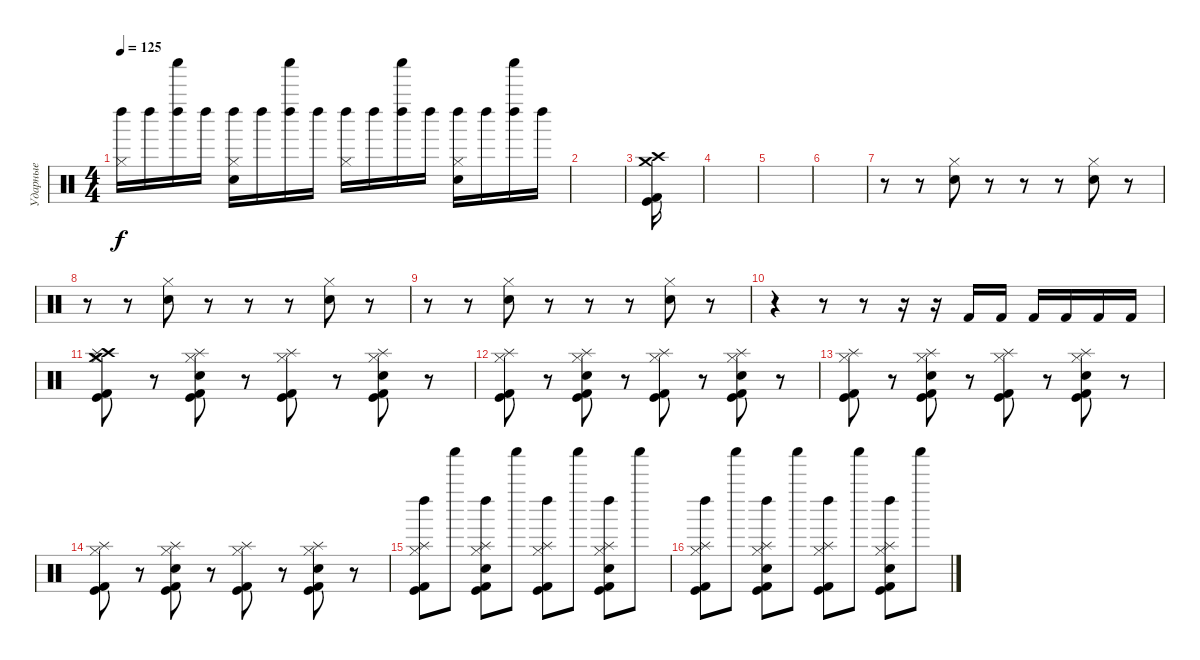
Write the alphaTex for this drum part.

\track ("Ударные" "Ударные") {instrument percussion}
\staff {score}
\articulation defaults
\ts (4 4)
\tempo 125
\clef neutral
\ks c
("Hi-Hat (closed)" "Left Maraca (hit)").16{dy f} "Left Maraca (hit)".16 ("Shaker (hit)" "Left Maraca (hit)").16 "Left Maraca (hit)".16 ("Hand Clap (hit)" "Hi-Hat (closed)" "Left Maraca (hit)").16 "Left Maraca (hit)".16 ("Shaker (hit)" "Left Maraca (hit)").16 "Left Maraca (hit)".16 ("Hi-Hat (closed)" "Left Maraca (hit)").16 "Left Maraca (hit)".16 ("Shaker (hit)" "Left Maraca (hit)").16 "Left Maraca (hit)".16 ("Hand Clap (hit)" "Hi-Hat (closed)" "Left Maraca (hit)").16 "Left Maraca (hit)".16 ("Shaker (hit)" "Left Maraca (hit)").16 "Left Maraca (hit)".16 |
|
("Crash high (hit)" "Crash medium (hit)" "Kick (hit) 2" "Kick (hit)").16 |
|
|
|
r.8 r.8 ("Hand Clap (hit)" "Hi-Hat (closed)").8 r.8 r.8 r.8 ("Hand Clap (hit)" "Hi-Hat (closed)").8 r.8 |
r.8 r.8 ("Hand Clap (hit)" "Hi-Hat (closed)").8 r.8 r.8 r.8 ("Hand Clap (hit)" "Hi-Hat (closed)").8 r.8 |
r.8 r.8 ("Hand Clap (hit)" "Hi-Hat (closed)").8 r.8 r.8 r.8 ("Hand Clap (hit)" "Hi-Hat (closed)").8 r.8 |
r.4 r.8 r.8 r.16 r.16 "Kick (hit) 2".16 "Kick (hit) 2".16 "Kick (hit) 2".16 "Kick (hit) 2".16 "Kick (hit) 2".16 "Kick (hit) 2".16 |
("Kick (hit)" "Kick (hit) 2" "Crash high (hit)" "Hi-Hat (closed)" "Crash medium (hit)" "Splash (hit)").8 r.8 ("Kick (hit)" "Hand Clap (hit)" "Kick (hit) 2" "Hi-Hat (closed)" "Splash (hit)").8 r.8 ("Kick (hit)" "Kick (hit) 2" "Hi-Hat (closed)" "Splash (hit)").8 r.8 ("Kick (hit)" "Hand Clap (hit)" "Kick (hit) 2" "Hi-Hat (closed)" "Splash (hit)").8 r.8 |
("Kick (hit)" "Kick (hit) 2" "Hi-Hat (closed)" "Splash (hit)").8 r.8 ("Kick (hit)" "Hand Clap (hit)" "Kick (hit) 2" "Hi-Hat (closed)" "Splash (hit)").8 r.8 ("Kick (hit)" "Kick (hit) 2" "Hi-Hat (closed)" "Splash (hit)").8 r.8 ("Kick (hit)" "Hand Clap (hit)" "Kick (hit) 2" "Hi-Hat (closed)" "Splash (hit)").8 r.8 |
("Kick (hit)" "Kick (hit) 2" "Hi-Hat (closed)" "Splash (hit)").8 r.8 ("Kick (hit)" "Hand Clap (hit)" "Kick (hit) 2" "Hi-Hat (closed)" "Splash (hit)").8 r.8 ("Kick (hit)" "Kick (hit) 2" "Hi-Hat (closed)" "Splash (hit)").8 r.8 ("Kick (hit)" "Hand Clap (hit)" "Kick (hit) 2" "Hi-Hat (closed)" "Splash (hit)").8 r.8 |
("Kick (hit)" "Kick (hit) 2" "Hi-Hat (closed)" "Splash (hit)").8 r.8 ("Kick (hit)" "Hand Clap (hit)" "Kick (hit) 2" "Hi-Hat (closed)" "Splash (hit)").8 r.8 ("Kick (hit)" "Kick (hit) 2" "Hi-Hat (closed)" "Splash (hit)").8 r.8 ("Kick (hit)" "Hand Clap (hit)" "Kick (hit) 2" "Hi-Hat (closed)" "Splash (hit)").8 r.8 |
("Kick (hit)" "Kick (hit) 2" "Hi-Hat (closed)" "Left Maraca (hit)" "Splash (hit)").8 "Shaker (hit)".8 ("Kick (hit)" "Hand Clap (hit)" "Kick (hit) 2" "Hi-Hat (closed)" "Left Maraca (hit)" "Splash (hit)").8 "Shaker (hit)".8 ("Kick (hit)" "Kick (hit) 2" "Hi-Hat (closed)" "Left Maraca (hit)" "Splash (hit)").8 "Shaker (hit)".8 ("Kick (hit)" "Hand Clap (hit)" "Kick (hit) 2" "Hi-Hat (closed)" "Left Maraca (hit)" "Splash (hit)").8 "Shaker (hit)".8 |
("Kick (hit)" "Kick (hit) 2" "Hi-Hat (closed)" "Left Maraca (hit)" "Splash (hit)").8 "Shaker (hit)".8 ("Kick (hit)" "Hand Clap (hit)" "Kick (hit) 2" "Hi-Hat (closed)" "Left Maraca (hit)" "Splash (hit)").8 "Shaker (hit)".8 ("Kick (hit)" "Kick (hit) 2" "Hi-Hat (closed)" "Left Maraca (hit)" "Splash (hit)").8 "Shaker (hit)".8 ("Kick (hit)" "Hand Clap (hit)" "Kick (hit) 2" "Hi-Hat (closed)" "Left Maraca (hit)" "Splash (hit)").8 "Shaker (hit)".8
